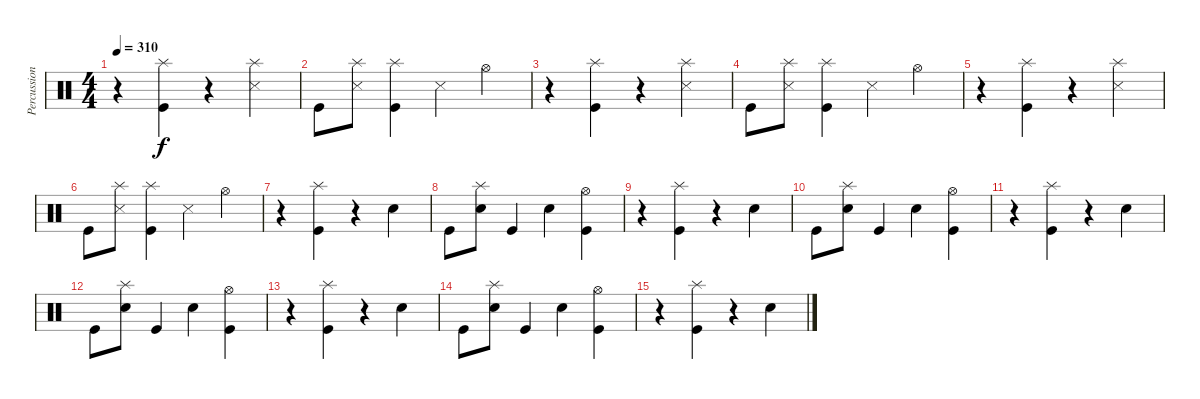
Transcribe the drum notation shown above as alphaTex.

\track ("Percussion" "Percussion") {instrument percussion}
\staff {score}
\articulation defaults
\ts (4 4)
\tempo 310
\clef neutral
\ks c
r.4{dy f} ("Splash (hit)" "Kick (hit)").4 r.4 ("Splash (hit)" "Metronome (hit)").4 |
"Kick (hit)".8 ("Splash (hit)" "Metronome (hit)").8 ("Splash (hit)" "Kick (hit)").4 "Metronome (hit)".4 "Hi-Hat (open)".4 |
r.4 ("Splash (hit)" "Kick (hit)").4 r.4 ("Splash (hit)" "Metronome (hit)").4 |
"Kick (hit)".8 ("Splash (hit)" "Metronome (hit)").8 ("Splash (hit)" "Kick (hit)").4 "Metronome (hit)".4 "Hi-Hat (open)".4 |
r.4 ("Splash (hit)" "Kick (hit)").4 r.4 ("Splash (hit)" "Metronome (hit)").4 |
"Kick (hit)".8 ("Splash (hit)" "Metronome (hit)").8 ("Splash (hit)" "Kick (hit)").4 "Metronome (hit)".4 "Hi-Hat (open)".4 |
r.4 ("Splash (hit)" "Kick (hit)").4 r.4 "Electric Snare (hit)".4 |
"Kick (hit)".8 ("Splash (hit)" "Electric Snare (hit)").8 "Kick (hit)".4 "Electric Snare (hit)".4 ("Hi-Hat (open)" "Kick (hit)").4 |
r.4 ("Splash (hit)" "Kick (hit)").4 r.4 "Electric Snare (hit)".4 |
"Kick (hit)".8 ("Splash (hit)" "Electric Snare (hit)").8 "Kick (hit)".4 "Electric Snare (hit)".4 ("Hi-Hat (open)" "Kick (hit)").4 |
r.4 ("Splash (hit)" "Kick (hit)").4 r.4 "Electric Snare (hit)".4 |
"Kick (hit)".8 ("Splash (hit)" "Electric Snare (hit)").8 "Kick (hit)".4 "Electric Snare (hit)".4 ("Hi-Hat (open)" "Kick (hit)").4 |
r.4 ("Splash (hit)" "Kick (hit)").4 r.4 "Electric Snare (hit)".4 |
"Kick (hit)".8 ("Splash (hit)" "Electric Snare (hit)").8 "Kick (hit)".4 "Electric Snare (hit)".4 ("Hi-Hat (open)" "Kick (hit)").4 |
r.4 ("Splash (hit)" "Kick (hit)").4 r.4 "Electric Snare (hit)".4
